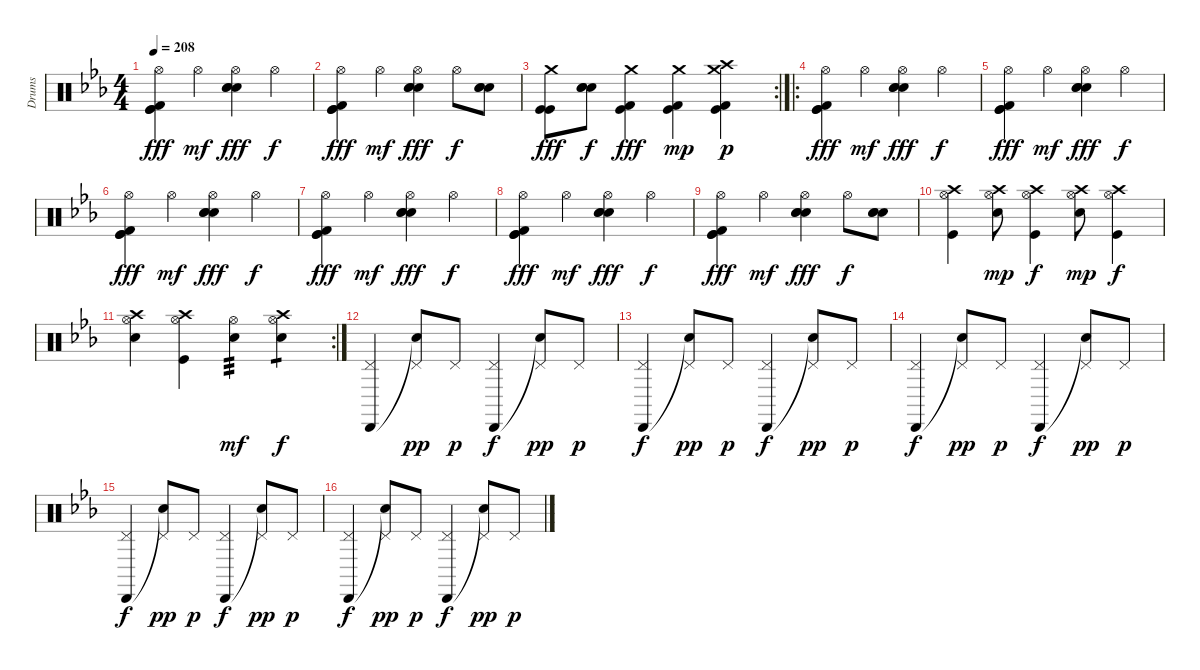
\track ("Drums" "Drums") {instrument percussion}
\staff {score}
\articulation defaults
\ts (4 4)
\tempo 208
\clef neutral
\ks cminor
("Kick (hit) 2" "Kick (hit)" "Kick (hit)" "Hi-Hat (open)").4{dy fff} "Hi-Hat (open)".4{dy mf} ("Snare (hit) 2" "Electric Snare (hit)" "Electric Snare (hit)" "Hi-Hat (open)").4{dy fff} "Hi-Hat (open)".4{dy f} |
("Kick (hit) 2" "Kick (hit)" "Kick (hit)" "Hi-Hat (open)").4{dy fff} "Hi-Hat (open)".4{dy mf} ("Snare (hit) 2" "Electric Snare (hit)" "Electric Snare (hit)" "Hi-Hat (open)").4{dy fff} "Hi-Hat (open)".8{dy f} ("Snare (hit) 2" "Electric Snare (hit)" "Electric Snare (hit)").8 |
\rc 2
("Kick (hit)" "Kick (hit)" "Crash medium (hit)").8{dy fff} ("Snare (hit) 2" "Electric Snare (hit)" "Electric Snare (hit)").8{dy f} ("Kick (hit)" "Crash medium (hit)" "Kick (hit) 2").4{dy fff} ("Kick (hit)" "Crash medium (hit)" "Kick (hit) 2").4{dy mp} ("Crash high (hit)" "Kick (hit)" "Crash medium (hit)" "Kick (hit) 2").4{dy p} |
\ro
("Kick (hit) 2" "Kick (hit)" "Kick (hit)" "Hi-Hat (open)").4{dy fff} "Hi-Hat (open)".4{dy mf} ("Snare (hit) 2" "Electric Snare (hit)" "Electric Snare (hit)" "Hi-Hat (open)").4{dy fff} "Hi-Hat (open)".4{dy f} |
("Kick (hit) 2" "Kick (hit)" "Kick (hit)" "Hi-Hat (open)").4{dy fff} "Hi-Hat (open)".4{dy mf} ("Snare (hit) 2" "Electric Snare (hit)" "Electric Snare (hit)" "Hi-Hat (open)").4{dy fff} "Hi-Hat (open)".4{dy f} |
("Kick (hit) 2" "Kick (hit)" "Kick (hit)" "Hi-Hat (open)").4{dy fff} "Hi-Hat (open)".4{dy mf} ("Snare (hit) 2" "Electric Snare (hit)" "Electric Snare (hit)" "Hi-Hat (open)").4{dy fff} "Hi-Hat (open)".4{dy f} |
("Kick (hit) 2" "Kick (hit)" "Kick (hit)" "Hi-Hat (open)").4{dy fff} "Hi-Hat (open)".4{dy mf} ("Snare (hit) 2" "Electric Snare (hit)" "Electric Snare (hit)" "Hi-Hat (open)").4{dy fff} "Hi-Hat (open)".4{dy f} |
("Kick (hit) 2" "Kick (hit)" "Kick (hit)" "Hi-Hat (open)").4{dy fff} "Hi-Hat (open)".4{dy mf} ("Snare (hit) 2" "Electric Snare (hit)" "Electric Snare (hit)" "Hi-Hat (open)").4{dy fff} "Hi-Hat (open)".4{dy f} |
("Kick (hit) 2" "Kick (hit)" "Kick (hit)" "Hi-Hat (open)").4{dy fff} "Hi-Hat (open)".4{dy mf} ("Snare (hit) 2" "Electric Snare (hit)" "Electric Snare (hit)" "Hi-Hat (open)").4{dy fff} "Hi-Hat (open)".8{dy f} ("Snare (hit) 2" "Electric Snare (hit)" "Electric Snare (hit)").8 |
("Hi-Hat (open)" "Crash high (hit)" "Kick (hit)").4 ("Hi-Hat (open)" "Crash high (hit)" "Electric Snare (hit)").8{dy mp} ("Hi-Hat (open)" "Crash high (hit)" "Kick (hit)").4{dy f} ("Hi-Hat (open)" "Crash high (hit)" "Electric Snare (hit)").8{dy mp} ("Hi-Hat (open)" "Crash high (hit)" "Kick (hit)").4{dy f} |
\rc 2
("Hi-Hat (open)" "Crash high (hit)" "Electric Snare (hit)").4 ("Hi-Hat (open)" "Crash high (hit)" "Kick (hit)").4 ("Hi-Hat (open)" "Electric Snare (hit)").4{tp 3 dy mf} ("Hi-Hat (open)" "Crash high (hit)" "Electric Snare (hit)").4{tp 1 dy f} |
("Cabasa (hit)" "Pedal Hi-Hat (hit)").4 ("Snare (hit)"{t} "Pedal Hi-Hat (hit)").8{dy pp} "Pedal Hi-Hat (hit)".8{dy p} ("Cabasa (hit)" "Pedal Hi-Hat (hit)").4{dy f} ("Snare (hit)"{t} "Pedal Hi-Hat (hit)").8{dy pp} "Pedal Hi-Hat (hit)".8{dy p} |
("Cabasa (hit)" "Pedal Hi-Hat (hit)").4{dy f} ("Snare (hit)"{t} "Pedal Hi-Hat (hit)").8{dy pp} "Pedal Hi-Hat (hit)".8{dy p} ("Cabasa (hit)" "Pedal Hi-Hat (hit)").4{dy f} ("Snare (hit)"{t} "Pedal Hi-Hat (hit)").8{dy pp} "Pedal Hi-Hat (hit)".8{dy p} |
("Cabasa (hit)" "Pedal Hi-Hat (hit)").4{dy f} ("Snare (hit)"{t} "Pedal Hi-Hat (hit)").8{dy pp} "Pedal Hi-Hat (hit)".8{dy p} ("Cabasa (hit)" "Pedal Hi-Hat (hit)").4{dy f} ("Snare (hit)"{t} "Pedal Hi-Hat (hit)").8{dy pp} "Pedal Hi-Hat (hit)".8{dy p} |
("Cabasa (hit)" "Pedal Hi-Hat (hit)").4{dy f} ("Snare (hit)"{t} "Pedal Hi-Hat (hit)").8{dy pp} "Pedal Hi-Hat (hit)".8{dy p} ("Cabasa (hit)" "Pedal Hi-Hat (hit)").4{dy f} ("Snare (hit)"{t} "Pedal Hi-Hat (hit)").8{dy pp} "Pedal Hi-Hat (hit)".8{dy p} |
("Cabasa (hit)" "Pedal Hi-Hat (hit)").4{dy f} ("Snare (hit)"{t} "Pedal Hi-Hat (hit)").8{dy pp} "Pedal Hi-Hat (hit)".8{dy p} ("Cabasa (hit)" "Pedal Hi-Hat (hit)").4{dy f} ("Snare (hit)"{t} "Pedal Hi-Hat (hit)").8{dy pp} "Pedal Hi-Hat (hit)".8{dy p}
